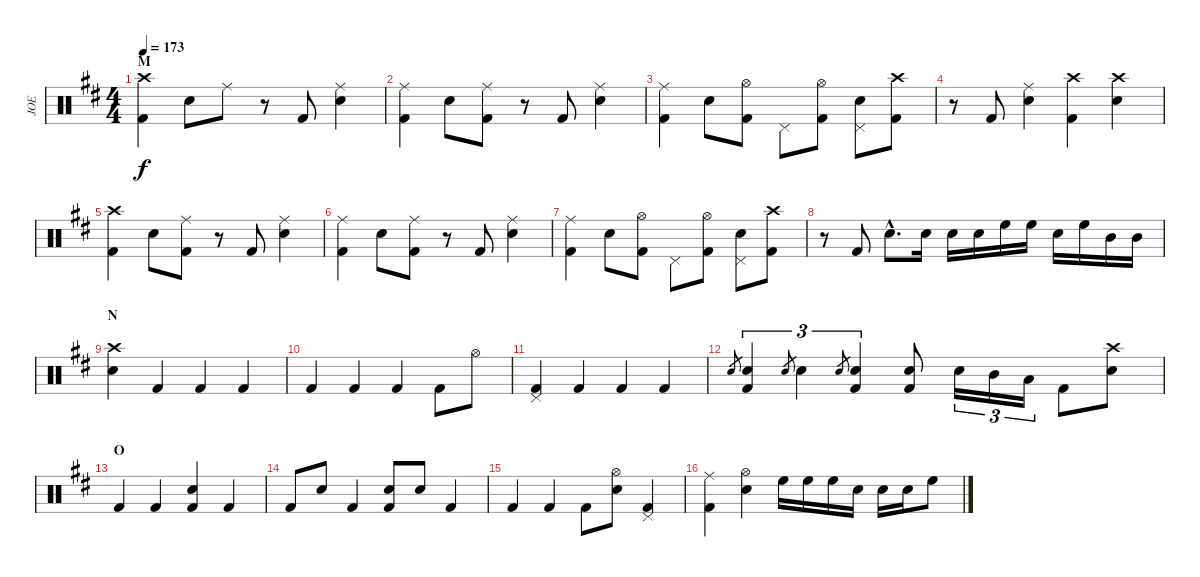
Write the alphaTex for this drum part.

\track ("JOE" "JOE") {instrument percussion}
\staff {score}
\articulation defaults
\ts (4 4)
\section ("" "M")
\tempo 173
\clef neutral
\ks bminor
("Crash high (hit)" "Kick (hit) 2").4{dy f} "Snare (hit) 2".8 "Ride (middle)".8 r.8 "Kick (hit) 2".8 ("Ride (middle)" "Snare (hit) 2").4 |
("Ride (middle)" "Kick (hit) 2").4 "Snare (hit) 2".8 ("Ride (middle)" "Kick (hit) 2").8 r.8 "Kick (hit) 2".8 ("Ride (middle)" "Snare (hit) 2").4 |
("Ride (middle)" "Kick (hit) 2").4 "Snare (hit) 2".8 ("Hi-Hat (open)" "Kick (hit) 2").8 "Pedal Hi-Hat (hit)".8 ("Hi-Hat (open)" "Kick (hit) 2").8 ("Pedal Hi-Hat (hit)" "Snare (hit) 2").8 ("Crash high (hit)" "Kick (hit) 2").8 |
r.8 "Kick (hit) 2".8 ("Ride (middle)" "Snare (hit) 2").4 ("Crash high (hit)" "Kick (hit) 2").4 ("Crash high (hit)" "Snare (hit) 2").4 |
("Crash high (hit)" "Kick (hit) 2").4 "Snare (hit) 2".8 ("Ride (middle)" "Kick (hit) 2").8 r.8 "Kick (hit) 2".8 ("Ride (middle)" "Snare (hit) 2").4 |
("Ride (middle)" "Kick (hit) 2").4 "Snare (hit) 2".8 ("Ride (middle)" "Kick (hit) 2").8 r.8 "Kick (hit) 2".8 ("Ride (middle)" "Snare (hit) 2").4 |
("Ride (middle)" "Kick (hit) 2").4 "Snare (hit) 2".8 ("Hi-Hat (open)" "Kick (hit) 2").8 "Pedal Hi-Hat (hit)".8 ("Hi-Hat (open)" "Kick (hit) 2").8 ("Pedal Hi-Hat (hit)" "Snare (hit) 2").8 ("Crash high (hit)" "Kick (hit) 2").8 |
r.8 "Kick (hit) 2".8 "Snare (hit) 2"{hac}.8{d} "Snare (hit) 2".16 "Snare (hit) 2".16 "Snare (hit) 2".16 "High Floor Tom (hit)".16 "High Floor Tom (hit)".16 "Snare (hit) 2".16 "High Floor Tom (hit)".16 "Mid Tom (hit)".16 "Mid Tom (hit)".16 |
\section ("" "N")
("Crash high (hit)" "Snare (hit) 2").4 "Kick (hit) 2".4 "Kick (hit) 2".4 "Kick (hit) 2".4 |
"Kick (hit) 2".4 "Kick (hit) 2".4 "Kick (hit) 2".4 "Kick (hit) 2".8 "Hi-Hat (open)".8 |
("Pedal Hi-Hat (hit)" "Kick (hit) 2").4 "Kick (hit) 2".4 "Kick (hit) 2".4 "Kick (hit) 2".4 |
"Snare (hit) 2".8{gr} ("Snare (hit) 2" "Kick (hit) 2").4{tu (3 2)} "Snare (hit) 2".8{gr} "Snare (hit) 2".4{tu (3 2)} "Snare (hit) 2".8{gr} ("Snare (hit) 2" "Kick (hit) 2").4{tu (3 2)} ("Snare (hit) 2" "Kick (hit) 2").8 "Snare (hit) 2".16{tu (3 2)} "Mid Tom (hit)".16{tu (3 2)} "Low Tom (hit)".16{tu (3 2)} "Kick (hit) 2".8 ("Crash high (hit)" "Snare (hit) 2").8 |
\section ("" "O")
"Kick (hit) 2".4 "Kick (hit) 2".4 ("Snare (hit) 2" "Kick (hit) 2").4 "Kick (hit) 2".4 |
"Kick (hit) 2".8 "Snare (hit) 2".8 "Kick (hit) 2".4 ("Snare (hit) 2" "Kick (hit) 2").8 "Snare (hit) 2".8 "Kick (hit) 2".4 |
"Kick (hit) 2".4 "Kick (hit) 2".4 "Kick (hit) 2".8 ("Snare (hit) 2" "Hi-Hat (open)").8 ("Kick (hit) 2" "Pedal Hi-Hat (hit)").4 |
("Ride (middle)" "Kick (hit) 2").4 ("Hi-Hat (open)" "Snare (hit) 2").4 "High Floor Tom (hit)".16 "High Floor Tom (hit)".16 "High Floor Tom (hit)".16 "Snare (hit) 2".16 "Snare (hit) 2".16 "Snare (hit) 2".16 "High Floor Tom (hit)".8
